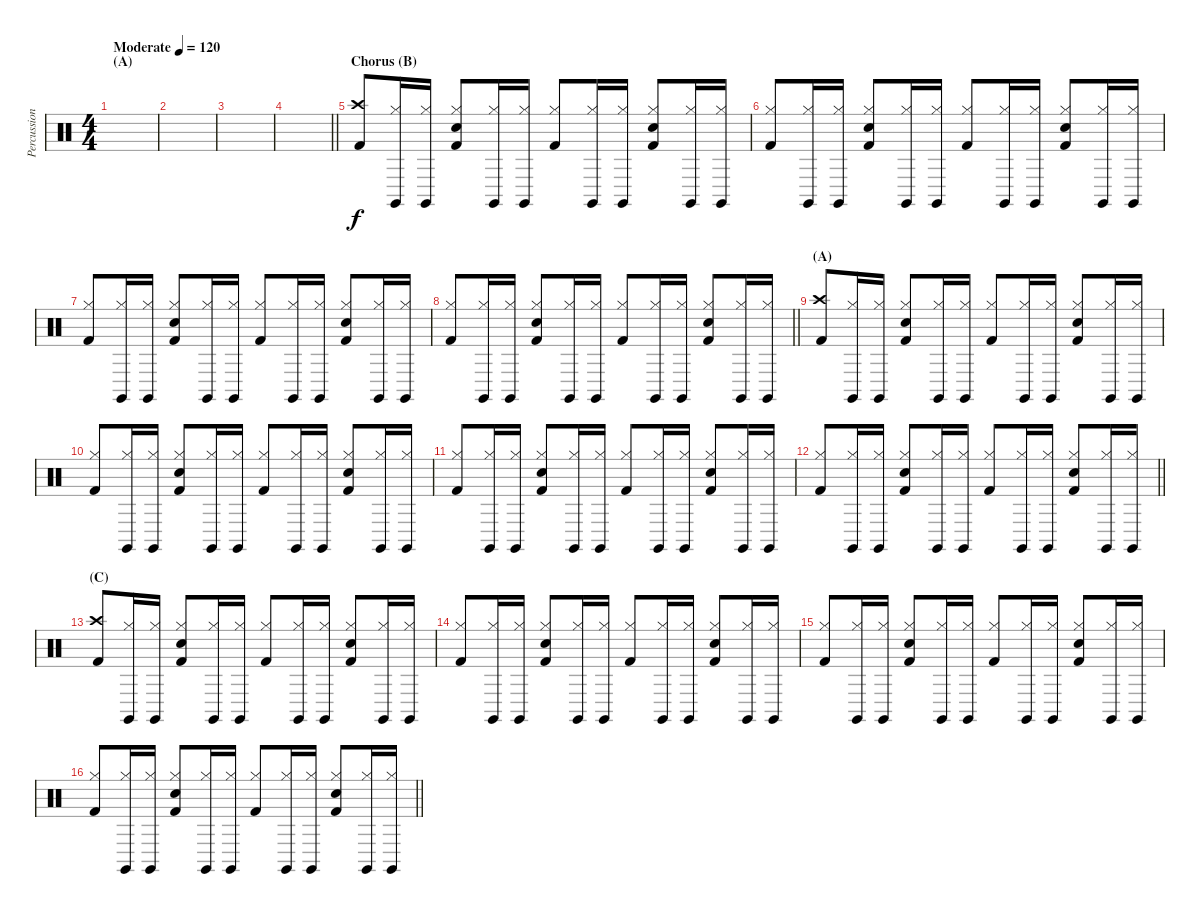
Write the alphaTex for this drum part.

\track ("Percussion" "Percussion") {instrument percussion}
\staff {score}
\articulation defaults
\ts (4 4)
\section ("" "(A)")
\tempo (120 "Moderate")
\clef neutral
\ks c
|
|
|
\barLineRight lightlight
|
\section ("" "Chorus (B)")
("Crash high (hit)" "Kick (hit) 2").8 ("Hi-Hat (closed)" "Claves (hit)").16 ("Hi-Hat (closed)" "Claves (hit)").16 ("Hi-Hat (closed)" "Electric Snare (hit)" "Kick (hit) 2").8 ("Hi-Hat (closed)" "Claves (hit)").16 ("Hi-Hat (closed)" "Claves (hit)").16 ("Hi-Hat (closed)" "Kick (hit) 2").8 ("Hi-Hat (closed)" "Claves (hit)").16 ("Hi-Hat (closed)" "Claves (hit)").16 ("Hi-Hat (closed)" "Electric Snare (hit)" "Kick (hit) 2").8 ("Hi-Hat (closed)" "Claves (hit)").16 ("Hi-Hat (closed)" "Claves (hit)").16 |
("Hi-Hat (closed)" "Kick (hit) 2").8 ("Hi-Hat (closed)" "Claves (hit)").16 ("Hi-Hat (closed)" "Claves (hit)").16 ("Hi-Hat (closed)" "Electric Snare (hit)" "Kick (hit) 2").8 ("Hi-Hat (closed)" "Claves (hit)").16 ("Hi-Hat (closed)" "Claves (hit)").16 ("Hi-Hat (closed)" "Kick (hit) 2").8 ("Hi-Hat (closed)" "Claves (hit)").16 ("Hi-Hat (closed)" "Claves (hit)").16 ("Hi-Hat (closed)" "Electric Snare (hit)" "Kick (hit) 2").8 ("Hi-Hat (closed)" "Claves (hit)").16 ("Hi-Hat (closed)" "Claves (hit)").16 |
("Hi-Hat (closed)" "Kick (hit) 2").8 ("Hi-Hat (closed)" "Claves (hit)").16 ("Hi-Hat (closed)" "Claves (hit)").16 ("Hi-Hat (closed)" "Electric Snare (hit)" "Kick (hit) 2").8 ("Hi-Hat (closed)" "Claves (hit)").16 ("Hi-Hat (closed)" "Claves (hit)").16 ("Hi-Hat (closed)" "Kick (hit) 2").8 ("Hi-Hat (closed)" "Claves (hit)").16 ("Hi-Hat (closed)" "Claves (hit)").16 ("Hi-Hat (closed)" "Electric Snare (hit)" "Kick (hit) 2").8 ("Hi-Hat (closed)" "Claves (hit)").16 ("Hi-Hat (closed)" "Claves (hit)").16 |
\barLineRight lightlight
("Hi-Hat (closed)" "Kick (hit) 2").8 ("Hi-Hat (closed)" "Claves (hit)").16 ("Hi-Hat (closed)" "Claves (hit)").16 ("Hi-Hat (closed)" "Electric Snare (hit)" "Kick (hit) 2").8 ("Hi-Hat (closed)" "Claves (hit)").16 ("Hi-Hat (closed)" "Claves (hit)").16 ("Hi-Hat (closed)" "Kick (hit) 2").8 ("Hi-Hat (closed)" "Claves (hit)").16 ("Hi-Hat (closed)" "Claves (hit)").16 ("Hi-Hat (closed)" "Electric Snare (hit)" "Kick (hit) 2").8 ("Hi-Hat (closed)" "Claves (hit)").16 ("Hi-Hat (closed)" "Claves (hit)").16 |
\section ("" "(A)")
("Crash high (hit)" "Kick (hit) 2").8 ("Hi-Hat (closed)" "Claves (hit)").16 ("Hi-Hat (closed)" "Claves (hit)").16 ("Hi-Hat (closed)" "Electric Snare (hit)" "Kick (hit) 2").8 ("Hi-Hat (closed)" "Claves (hit)").16 ("Hi-Hat (closed)" "Claves (hit)").16 ("Hi-Hat (closed)" "Kick (hit) 2").8 ("Hi-Hat (closed)" "Claves (hit)").16 ("Hi-Hat (closed)" "Claves (hit)").16 ("Hi-Hat (closed)" "Electric Snare (hit)" "Kick (hit) 2").8 ("Hi-Hat (closed)" "Claves (hit)").16 ("Hi-Hat (closed)" "Claves (hit)").16 |
("Hi-Hat (closed)" "Kick (hit) 2").8 ("Hi-Hat (closed)" "Claves (hit)").16 ("Hi-Hat (closed)" "Claves (hit)").16 ("Hi-Hat (closed)" "Electric Snare (hit)" "Kick (hit) 2").8 ("Hi-Hat (closed)" "Claves (hit)").16 ("Hi-Hat (closed)" "Claves (hit)").16 ("Hi-Hat (closed)" "Kick (hit) 2").8 ("Hi-Hat (closed)" "Claves (hit)").16 ("Hi-Hat (closed)" "Claves (hit)").16 ("Hi-Hat (closed)" "Electric Snare (hit)" "Kick (hit) 2").8 ("Hi-Hat (closed)" "Claves (hit)").16 ("Hi-Hat (closed)" "Claves (hit)").16 |
("Hi-Hat (closed)" "Kick (hit) 2").8 ("Hi-Hat (closed)" "Claves (hit)").16 ("Hi-Hat (closed)" "Claves (hit)").16 ("Hi-Hat (closed)" "Electric Snare (hit)" "Kick (hit) 2").8 ("Hi-Hat (closed)" "Claves (hit)").16 ("Hi-Hat (closed)" "Claves (hit)").16 ("Hi-Hat (closed)" "Kick (hit) 2").8 ("Hi-Hat (closed)" "Claves (hit)").16 ("Hi-Hat (closed)" "Claves (hit)").16 ("Hi-Hat (closed)" "Electric Snare (hit)" "Kick (hit) 2").8 ("Hi-Hat (closed)" "Claves (hit)").16 ("Hi-Hat (closed)" "Claves (hit)").16 |
\barLineRight lightlight
("Hi-Hat (closed)" "Kick (hit) 2").8 ("Hi-Hat (closed)" "Claves (hit)").16 ("Hi-Hat (closed)" "Claves (hit)").16 ("Hi-Hat (closed)" "Electric Snare (hit)" "Kick (hit) 2").8 ("Hi-Hat (closed)" "Claves (hit)").16 ("Hi-Hat (closed)" "Claves (hit)").16 ("Hi-Hat (closed)" "Kick (hit) 2").8 ("Hi-Hat (closed)" "Claves (hit)").16 ("Hi-Hat (closed)" "Claves (hit)").16 ("Hi-Hat (closed)" "Electric Snare (hit)" "Kick (hit) 2").8 ("Hi-Hat (closed)" "Claves (hit)").16 ("Hi-Hat (closed)" "Claves (hit)").16 |
\section ("" "(C)")
("Crash high (hit)" "Kick (hit) 2").8 ("Hi-Hat (closed)" "Claves (hit)").16 ("Hi-Hat (closed)" "Claves (hit)").16 ("Hi-Hat (closed)" "Electric Snare (hit)" "Kick (hit) 2").8 ("Hi-Hat (closed)" "Claves (hit)").16 ("Hi-Hat (closed)" "Claves (hit)").16 ("Hi-Hat (closed)" "Kick (hit) 2").8 ("Hi-Hat (closed)" "Claves (hit)").16 ("Hi-Hat (closed)" "Claves (hit)").16 ("Hi-Hat (closed)" "Electric Snare (hit)" "Kick (hit) 2").8 ("Hi-Hat (closed)" "Claves (hit)").16 ("Hi-Hat (closed)" "Claves (hit)").16 |
("Hi-Hat (closed)" "Kick (hit) 2").8 ("Hi-Hat (closed)" "Claves (hit)").16 ("Hi-Hat (closed)" "Claves (hit)").16 ("Hi-Hat (closed)" "Electric Snare (hit)" "Kick (hit) 2").8 ("Hi-Hat (closed)" "Claves (hit)").16 ("Hi-Hat (closed)" "Claves (hit)").16 ("Hi-Hat (closed)" "Kick (hit) 2").8 ("Hi-Hat (closed)" "Claves (hit)").16 ("Hi-Hat (closed)" "Claves (hit)").16 ("Hi-Hat (closed)" "Electric Snare (hit)" "Kick (hit) 2").8 ("Hi-Hat (closed)" "Claves (hit)").16 ("Hi-Hat (closed)" "Claves (hit)").16 |
("Hi-Hat (closed)" "Kick (hit) 2").8 ("Hi-Hat (closed)" "Claves (hit)").16 ("Hi-Hat (closed)" "Claves (hit)").16 ("Hi-Hat (closed)" "Electric Snare (hit)" "Kick (hit) 2").8 ("Hi-Hat (closed)" "Claves (hit)").16 ("Hi-Hat (closed)" "Claves (hit)").16 ("Hi-Hat (closed)" "Kick (hit) 2").8 ("Hi-Hat (closed)" "Claves (hit)").16 ("Hi-Hat (closed)" "Claves (hit)").16 ("Hi-Hat (closed)" "Electric Snare (hit)" "Kick (hit) 2").8 ("Hi-Hat (closed)" "Claves (hit)").16 ("Hi-Hat (closed)" "Claves (hit)").16 |
\barLineRight lightlight
("Hi-Hat (closed)" "Kick (hit) 2").8 ("Hi-Hat (closed)" "Claves (hit)").16 ("Hi-Hat (closed)" "Claves (hit)").16 ("Hi-Hat (closed)" "Electric Snare (hit)" "Kick (hit) 2").8 ("Hi-Hat (closed)" "Claves (hit)").16 ("Hi-Hat (closed)" "Claves (hit)").16 ("Hi-Hat (closed)" "Kick (hit) 2").8 ("Hi-Hat (closed)" "Claves (hit)").16 ("Hi-Hat (closed)" "Claves (hit)").16 ("Hi-Hat (closed)" "Electric Snare (hit)" "Kick (hit) 2").8 ("Hi-Hat (closed)" "Claves (hit)").16 ("Hi-Hat (closed)" "Claves (hit)").16
